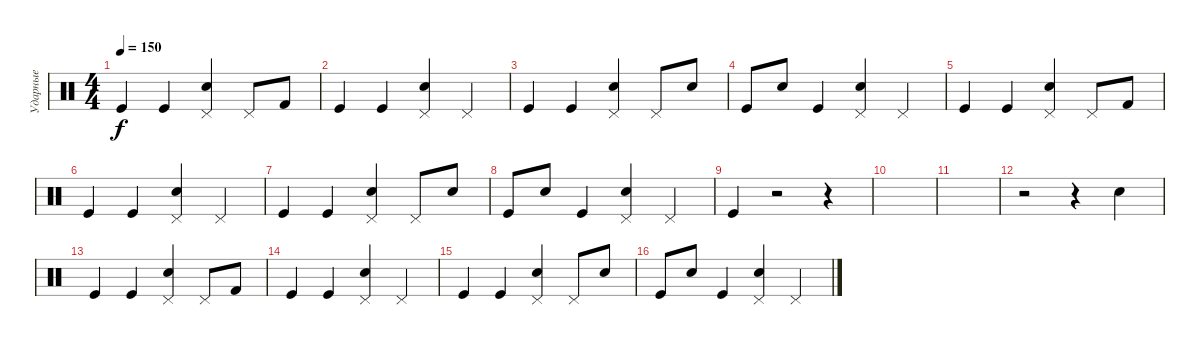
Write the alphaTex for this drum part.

\track ("Ударные" "Ударные") {instrument percussion}
\staff {score}
\articulation defaults
\ts (4 4)
\tempo 150
\clef neutral
\ks c "Kick (hit)".4{dy f} "Kick (hit)".4
("Electric Snare (hit)" "Pedal Hi-Hat (hit)").4 "Pedal Hi-Hat (hit)".8 "Kick (hit) 2".8 |
"Kick (hit)".4 "Kick (hit)".4 ("Electric Snare (hit)" "Pedal Hi-Hat (hit)").4 "Pedal Hi-Hat (hit)".4 |
"Kick (hit)".4 "Kick (hit)".4 ("Electric Snare (hit)" "Pedal Hi-Hat (hit)").4 "Pedal Hi-Hat (hit)".8 "Electric Snare (hit)".8 |
"Kick (hit)".8 "Electric Snare (hit)".8 "Kick (hit)".4 ("Electric Snare (hit)" "Pedal Hi-Hat (hit)").4 "Pedal Hi-Hat (hit)".4 |
"Kick (hit)".4 "Kick (hit)".4 ("Electric Snare (hit)" "Pedal Hi-Hat (hit)").4 "Pedal Hi-Hat (hit)".8 "Kick (hit) 2".8 |
"Kick (hit)".4 "Kick (hit)".4 ("Electric Snare (hit)" "Pedal Hi-Hat (hit)").4 "Pedal Hi-Hat (hit)".4 |
"Kick (hit)".4 "Kick (hit)".4 ("Electric Snare (hit)" "Pedal Hi-Hat (hit)").4 "Pedal Hi-Hat (hit)".8 "Electric Snare (hit)".8 |
"Kick (hit)".8 "Electric Snare (hit)".8 "Kick (hit)".4 ("Electric Snare (hit)" "Pedal Hi-Hat (hit)").4 "Pedal Hi-Hat (hit)".4 |
"Kick (hit)".4 r.2 r.4 |
|
|
r.2 r.4 "Electric Snare (hit)".4 |
"Kick (hit)".4 "Kick (hit)".4 ("Electric Snare (hit)" "Pedal Hi-Hat (hit)").4 "Pedal Hi-Hat (hit)".8 "Kick (hit) 2".8 |
"Kick (hit)".4 "Kick (hit)".4 ("Electric Snare (hit)" "Pedal Hi-Hat (hit)").4 "Pedal Hi-Hat (hit)".4 |
"Kick (hit)".4 "Kick (hit)".4 ("Electric Snare (hit)" "Pedal Hi-Hat (hit)").4 "Pedal Hi-Hat (hit)".8 "Electric Snare (hit)".8 |
"Kick (hit)".8 "Electric Snare (hit)".8 "Kick (hit)".4 ("Electric Snare (hit)" "Pedal Hi-Hat (hit)").4 "Pedal Hi-Hat (hit)".4
